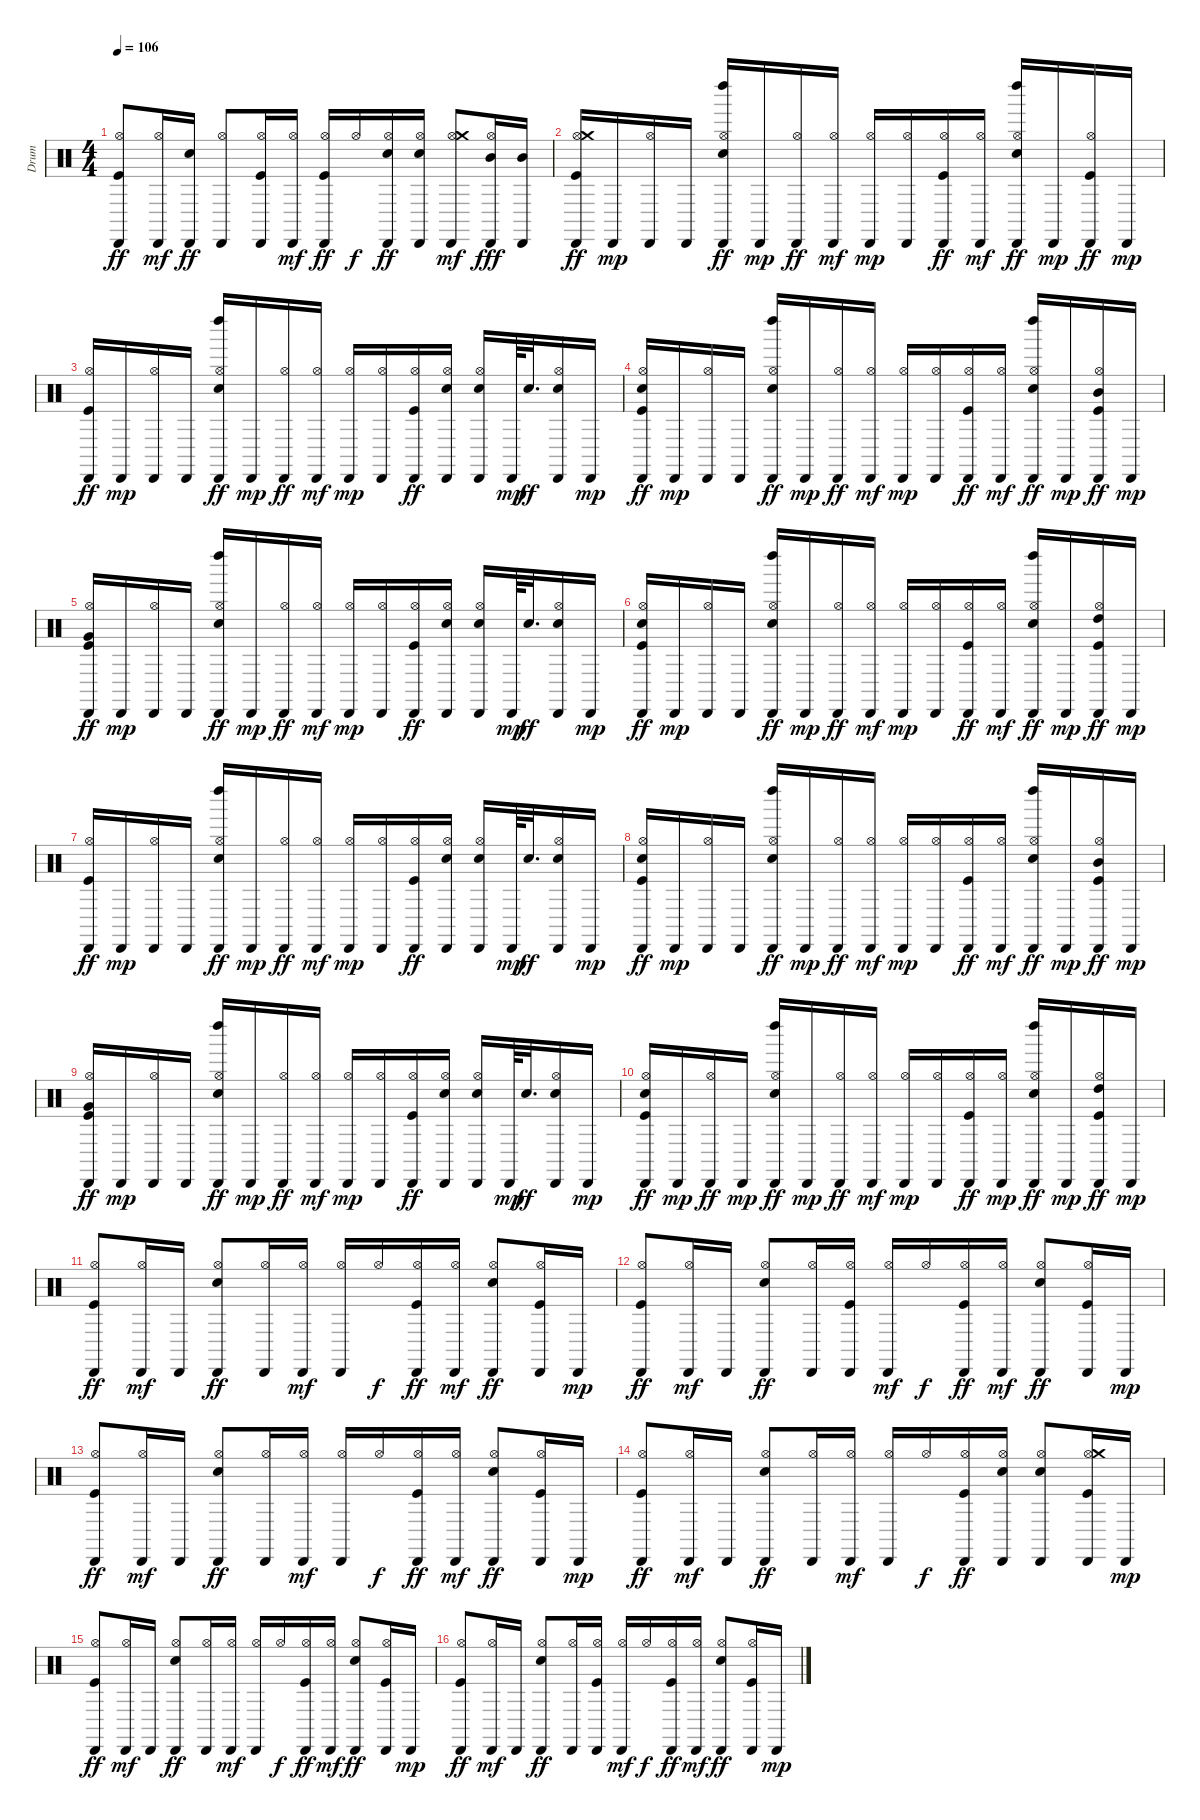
\track ("Drum" "Drum") {instrument percussion}
\staff {score}
\articulation defaults
\ts (4 4)
\tempo 106
\clef neutral
\ks c
("Cabasa (hit)" "Hi-Hat (open)" "Kick (hit)").8{dy ff} ("Cabasa (hit)" "Hi-Hat (open)").16{dy mf} ("Cabasa (hit)" "Snare (hit) 2").16{dy ff} ("Cabasa (hit)" "Hi-Hat (open)").8 ("Cabasa (hit)" "Hi-Hat (open)" "Kick (hit)").16 ("Cabasa (hit)" "Hi-Hat (open)").16{dy mf} ("Cabasa (hit)" "Hi-Hat (open)" "Kick (hit)").16{dy ff} "Hi-Hat (open)".16{dy f} ("Cabasa (hit)" "Hi-Hat (open)" "Snare (hit) 2").16{dy ff} ("Cabasa (hit)" "Hi-Hat (open)" "Snare (hit) 2").16 ("Cabasa (hit)" "Hi-Hat (open)" "Crash medium (hit)").8{dy mf} ("Cabasa (hit)" "Hi-Hat (open)" "Mid Tom (hit)").16{dy fff} ("Cabasa (hit)" "Mid Tom (hit)").16 |
("Cabasa (hit)" "Hi-Hat (open)" "Crash medium (hit)" "Kick (hit)").16{dy ff} "Cabasa (hit)".16{dy mp} ("Cabasa (hit)" "Hi-Hat (open)").16 "Cabasa (hit)".16 ("Cabasa (hit)" "Hi-Hat (open)" "Left Maraca (hit)" "Snare (hit) 2").16{dy ff} "Cabasa (hit)".16{dy mp} ("Cabasa (hit)" "Hi-Hat (open)").16{dy ff} ("Cabasa (hit)" "Hi-Hat (open)").16{dy mf} ("Cabasa (hit)" "Hi-Hat (open)").16{dy mp} ("Cabasa (hit)" "Hi-Hat (open)").16 ("Cabasa (hit)" "Hi-Hat (open)" "Kick (hit)").16{dy ff} ("Cabasa (hit)" "Hi-Hat (open)").16{dy mf} ("Cabasa (hit)" "Hi-Hat (open)" "Left Maraca (hit)" "Snare (hit) 2").16{dy ff} "Cabasa (hit)".16{dy mp} ("Cabasa (hit)" "Hi-Hat (open)" "Kick (hit)").16{dy ff} "Cabasa (hit)".16{dy mp} |
("Cabasa (hit)" "Hi-Hat (open)" "Kick (hit)").16{dy ff} "Cabasa (hit)".16{dy mp} ("Cabasa (hit)" "Hi-Hat (open)").16 "Cabasa (hit)".16 ("Cabasa (hit)" "Hi-Hat (open)" "Left Maraca (hit)" "Snare (hit) 2").16{dy ff} "Cabasa (hit)".16{dy mp} ("Cabasa (hit)" "Hi-Hat (open)").16{dy ff} ("Cabasa (hit)" "Hi-Hat (open)").16{dy mf} ("Cabasa (hit)" "Hi-Hat (open)").16{dy mp} ("Cabasa (hit)" "Hi-Hat (open)").16 ("Cabasa (hit)" "Hi-Hat (open)" "Kick (hit)").16{dy ff} ("Cabasa (hit)" "Hi-Hat (open)" "Snare (hit) 2").16 ("Cabasa (hit)" "Hi-Hat (open)" "Snare (hit) 2").16 "Cabasa (hit)".64{dy mp} "Snare (hit) 2".32{d dy ff} ("Cabasa (hit)" "Hi-Hat (open)" "Snare (hit) 2").16 "Cabasa (hit)".16{dy mp} |
("Cabasa (hit)" "Hi-Hat (open)" "Snare (hit) 2" "Kick (hit)").16{dy ff} "Cabasa (hit)".16{dy mp} ("Cabasa (hit)" "Hi-Hat (open)").16 "Cabasa (hit)".16 ("Cabasa (hit)" "Hi-Hat (open)" "Left Maraca (hit)" "Snare (hit) 2").16{dy ff} "Cabasa (hit)".16{dy mp} ("Cabasa (hit)" "Hi-Hat (open)").16{dy ff} ("Cabasa (hit)" "Hi-Hat (open)").16{dy mf} ("Cabasa (hit)" "Hi-Hat (open)").16{dy mp} ("Cabasa (hit)" "Hi-Hat (open)").16 ("Cabasa (hit)" "Hi-Hat (open)" "Kick (hit)").16{dy ff} ("Cabasa (hit)" "Hi-Hat (open)").16{dy mf} ("Cabasa (hit)" "Hi-Hat (open)" "Left Maraca (hit)" "Snare (hit) 2").16{dy ff} "Cabasa (hit)".16{dy mp} ("Cabasa (hit)" "Hi-Hat (open)" "Mid Tom (hit)" "Kick (hit)").16{dy ff} "Cabasa (hit)".16{dy mp} |
("Cabasa (hit)" "Hi-Hat (open)" "Very Low Tom (hit)" "Kick (hit)").16{dy ff} "Cabasa (hit)".16{dy mp} ("Cabasa (hit)" "Hi-Hat (open)").16 "Cabasa (hit)".16 ("Cabasa (hit)" "Hi-Hat (open)" "Left Maraca (hit)" "Snare (hit) 2").16{dy ff} "Cabasa (hit)".16{dy mp} ("Cabasa (hit)" "Hi-Hat (open)").16{dy ff} ("Cabasa (hit)" "Hi-Hat (open)").16{dy mf} ("Cabasa (hit)" "Hi-Hat (open)").16{dy mp} ("Cabasa (hit)" "Hi-Hat (open)").16 ("Cabasa (hit)" "Hi-Hat (open)" "Kick (hit)").16{dy ff} ("Cabasa (hit)" "Hi-Hat (open)" "Snare (hit) 2").16 ("Cabasa (hit)" "Hi-Hat (open)" "Snare (hit) 2").16 "Cabasa (hit)".64{dy mp} "Snare (hit) 2".32{d dy ff} ("Cabasa (hit)" "Hi-Hat (open)" "Snare (hit) 2").16 "Cabasa (hit)".16{dy mp} |
("Cabasa (hit)" "Hi-Hat (open)" "Snare (hit) 2" "Kick (hit)").16{dy ff} "Cabasa (hit)".16{dy mp} ("Cabasa (hit)" "Hi-Hat (open)").16 "Cabasa (hit)".16 ("Cabasa (hit)" "Hi-Hat (open)" "Left Maraca (hit)" "Snare (hit) 2").16{dy ff} "Cabasa (hit)".16{dy mp} ("Cabasa (hit)" "Hi-Hat (open)").16{dy ff} ("Cabasa (hit)" "Hi-Hat (open)").16{dy mf} ("Cabasa (hit)" "Hi-Hat (open)").16{dy mp} ("Cabasa (hit)" "Hi-Hat (open)").16 ("Cabasa (hit)" "Hi-Hat (open)" "Kick (hit)").16{dy ff} ("Cabasa (hit)" "Hi-Hat (open)").16{dy mf} ("Cabasa (hit)" "Hi-Hat (open)" "Left Maraca (hit)" "Snare (hit) 2").16{dy ff} "Cabasa (hit)".16{dy mp} ("Cabasa (hit)" "Hi-Hat (open)" "High Tom (hit)" "Kick (hit)").16{dy ff} "Cabasa (hit)".16{dy mp} |
("Cabasa (hit)" "Hi-Hat (open)" "Kick (hit)").16{dy ff} "Cabasa (hit)".16{dy mp} ("Cabasa (hit)" "Hi-Hat (open)").16 "Cabasa (hit)".16 ("Cabasa (hit)" "Hi-Hat (open)" "Left Maraca (hit)" "Snare (hit) 2").16{dy ff} "Cabasa (hit)".16{dy mp} ("Cabasa (hit)" "Hi-Hat (open)").16{dy ff} ("Cabasa (hit)" "Hi-Hat (open)").16{dy mf} ("Cabasa (hit)" "Hi-Hat (open)").16{dy mp} ("Cabasa (hit)" "Hi-Hat (open)").16 ("Cabasa (hit)" "Hi-Hat (open)" "Kick (hit)").16{dy ff} ("Cabasa (hit)" "Hi-Hat (open)" "Snare (hit) 2").16 ("Cabasa (hit)" "Hi-Hat (open)" "Snare (hit) 2").16 "Cabasa (hit)".64{dy mp} "Snare (hit) 2".32{d dy ff} ("Cabasa (hit)" "Hi-Hat (open)" "Snare (hit) 2").16 "Cabasa (hit)".16{dy mp} |
("Cabasa (hit)" "Hi-Hat (open)" "Snare (hit) 2" "Kick (hit)").16{dy ff} "Cabasa (hit)".16{dy mp} ("Cabasa (hit)" "Hi-Hat (open)").16 "Cabasa (hit)".16 ("Cabasa (hit)" "Hi-Hat (open)" "Left Maraca (hit)" "Snare (hit) 2").16{dy ff} "Cabasa (hit)".16{dy mp} ("Cabasa (hit)" "Hi-Hat (open)").16{dy ff} ("Cabasa (hit)" "Hi-Hat (open)").16{dy mf} ("Cabasa (hit)" "Hi-Hat (open)").16{dy mp} ("Cabasa (hit)" "Hi-Hat (open)").16 ("Cabasa (hit)" "Hi-Hat (open)" "Kick (hit)").16{dy ff} ("Cabasa (hit)" "Hi-Hat (open)").16{dy mf} ("Cabasa (hit)" "Hi-Hat (open)" "Left Maraca (hit)" "Snare (hit) 2").16{dy ff} "Cabasa (hit)".16{dy mp} ("Cabasa (hit)" "Hi-Hat (open)" "Mid Tom (hit)" "Kick (hit)").16{dy ff} "Cabasa (hit)".16{dy mp} |
("Cabasa (hit)" "Hi-Hat (open)" "Very Low Tom (hit)" "Kick (hit)").16{dy ff} "Cabasa (hit)".16{dy mp} ("Cabasa (hit)" "Hi-Hat (open)").16 "Cabasa (hit)".16 ("Cabasa (hit)" "Hi-Hat (open)" "Left Maraca (hit)" "Snare (hit) 2").16{dy ff} "Cabasa (hit)".16{dy mp} ("Cabasa (hit)" "Hi-Hat (open)").16{dy ff} ("Cabasa (hit)" "Hi-Hat (open)").16{dy mf} ("Cabasa (hit)" "Hi-Hat (open)").16{dy mp} ("Cabasa (hit)" "Hi-Hat (open)").16 ("Cabasa (hit)" "Hi-Hat (open)" "Kick (hit)").16{dy ff} ("Cabasa (hit)" "Hi-Hat (open)" "Snare (hit) 2").16 ("Cabasa (hit)" "Hi-Hat (open)" "Snare (hit) 2").16 "Cabasa (hit)".64{dy mp} "Snare (hit) 2".32{d dy ff} ("Cabasa (hit)" "Hi-Hat (open)" "Snare (hit) 2").16 "Cabasa (hit)".16{dy mp} |
("Cabasa (hit)" "Hi-Hat (open)" "Snare (hit) 2" "Kick (hit)").16{dy ff} "Cabasa (hit)".16{dy mp} ("Cabasa (hit)" "Hi-Hat (open)").16{dy ff} "Cabasa (hit)".16{dy mp} ("Cabasa (hit)" "Hi-Hat (open)" "Left Maraca (hit)" "Snare (hit) 2").16{dy ff} "Cabasa (hit)".16{dy mp} ("Cabasa (hit)" "Hi-Hat (open)").16{dy ff} ("Cabasa (hit)" "Hi-Hat (open)").16{dy mf} ("Cabasa (hit)" "Hi-Hat (open)").16{dy mp} ("Cabasa (hit)" "Hi-Hat (open)").16 ("Cabasa (hit)" "Hi-Hat (open)" "Kick (hit)").16{dy ff} ("Cabasa (hit)" "Hi-Hat (open)").16{dy mp} ("Cabasa (hit)" "Hi-Hat (open)" "Left Maraca (hit)" "Snare (hit) 2").16{dy ff} "Cabasa (hit)".16{dy mp} ("Cabasa (hit)" "Hi-Hat (open)" "High Tom (hit)" "Kick (hit)").16{dy ff} "Cabasa (hit)".16{dy mp} |
("Cabasa (hit)" "Hi-Hat (open)" "Kick (hit)").8{dy ff} ("Cabasa (hit)" "Hi-Hat (open)").16{dy mf} "Cabasa (hit)".16 ("Cabasa (hit)" "Hi-Hat (open)" "Snare (hit) 2").8{dy ff} ("Cabasa (hit)" "Hi-Hat (open)").16 ("Cabasa (hit)" "Hi-Hat (open)").16{dy mf} ("Cabasa (hit)" "Hi-Hat (open)").16 "Hi-Hat (open)".16{dy f} ("Cabasa (hit)" "Hi-Hat (open)" "Kick (hit)").16{dy ff} ("Cabasa (hit)" "Hi-Hat (open)").16{dy mf} ("Cabasa (hit)" "Hi-Hat (open)" "Snare (hit) 2").8{dy ff} ("Cabasa (hit)" "Hi-Hat (open)" "Kick (hit)").16 "Cabasa (hit)".16{dy mp} |
("Cabasa (hit)" "Hi-Hat (open)" "Kick (hit)").8{dy ff} ("Cabasa (hit)" "Hi-Hat (open)").16{dy mf} "Cabasa (hit)".16 ("Cabasa (hit)" "Hi-Hat (open)" "Snare (hit) 2").8{dy ff} ("Cabasa (hit)" "Hi-Hat (open)").16 ("Cabasa (hit)" "Hi-Hat (open)" "Kick (hit)").16 ("Cabasa (hit)" "Hi-Hat (open)").16{dy mf} "Hi-Hat (open)".16{dy f} ("Cabasa (hit)" "Hi-Hat (open)" "Kick (hit)").16{dy ff} ("Cabasa (hit)" "Hi-Hat (open)").16{dy mf} ("Cabasa (hit)" "Hi-Hat (open)" "Snare (hit) 2").8{dy ff} ("Cabasa (hit)" "Hi-Hat (open)" "Kick (hit)").16 "Cabasa (hit)".16{dy mp} |
("Cabasa (hit)" "Hi-Hat (open)" "Kick (hit)").8{dy ff} ("Cabasa (hit)" "Hi-Hat (open)").16{dy mf} "Cabasa (hit)".16 ("Cabasa (hit)" "Hi-Hat (open)" "Snare (hit) 2").8{dy ff} ("Cabasa (hit)" "Hi-Hat (open)").16 ("Cabasa (hit)" "Hi-Hat (open)").16{dy mf} ("Cabasa (hit)" "Hi-Hat (open)").16 "Hi-Hat (open)".16{dy f} ("Cabasa (hit)" "Hi-Hat (open)" "Kick (hit)").16{dy ff} ("Cabasa (hit)" "Hi-Hat (open)").16{dy mf} ("Cabasa (hit)" "Hi-Hat (open)" "Snare (hit) 2").8{dy ff} ("Cabasa (hit)" "Hi-Hat (open)" "Kick (hit)").16 "Cabasa (hit)".16{dy mp} |
("Cabasa (hit)" "Hi-Hat (open)" "Kick (hit)").8{dy ff} ("Cabasa (hit)" "Hi-Hat (open)").16{dy mf} "Cabasa (hit)".16 ("Cabasa (hit)" "Hi-Hat (open)" "Snare (hit) 2").8{dy ff} ("Cabasa (hit)" "Hi-Hat (open)").16 ("Cabasa (hit)" "Hi-Hat (open)").16{dy mf} ("Cabasa (hit)" "Hi-Hat (open)").16 "Hi-Hat (open)".16{dy f} ("Cabasa (hit)" "Hi-Hat (open)" "Kick (hit)").16{dy ff} ("Cabasa (hit)" "Hi-Hat (open)" "Snare (hit) 2").16 ("Cabasa (hit)" "Hi-Hat (open)" "Snare (hit) 2").8 ("Cabasa (hit)" "Hi-Hat (open)" "Crash medium (hit)" "Kick (hit)").16 "Cabasa (hit)".16{dy mp} |
("Cabasa (hit)" "Hi-Hat (open)" "Kick (hit)").8{dy ff} ("Cabasa (hit)" "Hi-Hat (open)").16{dy mf} "Cabasa (hit)".16 ("Cabasa (hit)" "Hi-Hat (open)" "Snare (hit) 2").8{dy ff} ("Cabasa (hit)" "Hi-Hat (open)").16 ("Cabasa (hit)" "Hi-Hat (open)").16{dy mf} ("Cabasa (hit)" "Hi-Hat (open)").16 "Hi-Hat (open)".16{dy f} ("Cabasa (hit)" "Hi-Hat (open)" "Kick (hit)").16{dy ff} ("Cabasa (hit)" "Hi-Hat (open)").16{dy mf} ("Cabasa (hit)" "Hi-Hat (open)" "Snare (hit) 2").8{dy ff} ("Cabasa (hit)" "Hi-Hat (open)" "Kick (hit)").16 "Cabasa (hit)".16{dy mp} |
("Cabasa (hit)" "Hi-Hat (open)" "Kick (hit)").8{dy ff} ("Cabasa (hit)" "Hi-Hat (open)").16{dy mf} "Cabasa (hit)".16 ("Cabasa (hit)" "Hi-Hat (open)" "Snare (hit) 2").8{dy ff} ("Cabasa (hit)" "Hi-Hat (open)").16 ("Cabasa (hit)" "Hi-Hat (open)" "Kick (hit)").16 ("Cabasa (hit)" "Hi-Hat (open)").16{dy mf} "Hi-Hat (open)".16{dy f} ("Cabasa (hit)" "Hi-Hat (open)" "Kick (hit)").16{dy ff} ("Cabasa (hit)" "Hi-Hat (open)").16{dy mf} ("Cabasa (hit)" "Hi-Hat (open)" "Snare (hit) 2").8{dy ff} ("Cabasa (hit)" "Hi-Hat (open)" "Kick (hit)").16 "Cabasa (hit)".16{dy mp}
